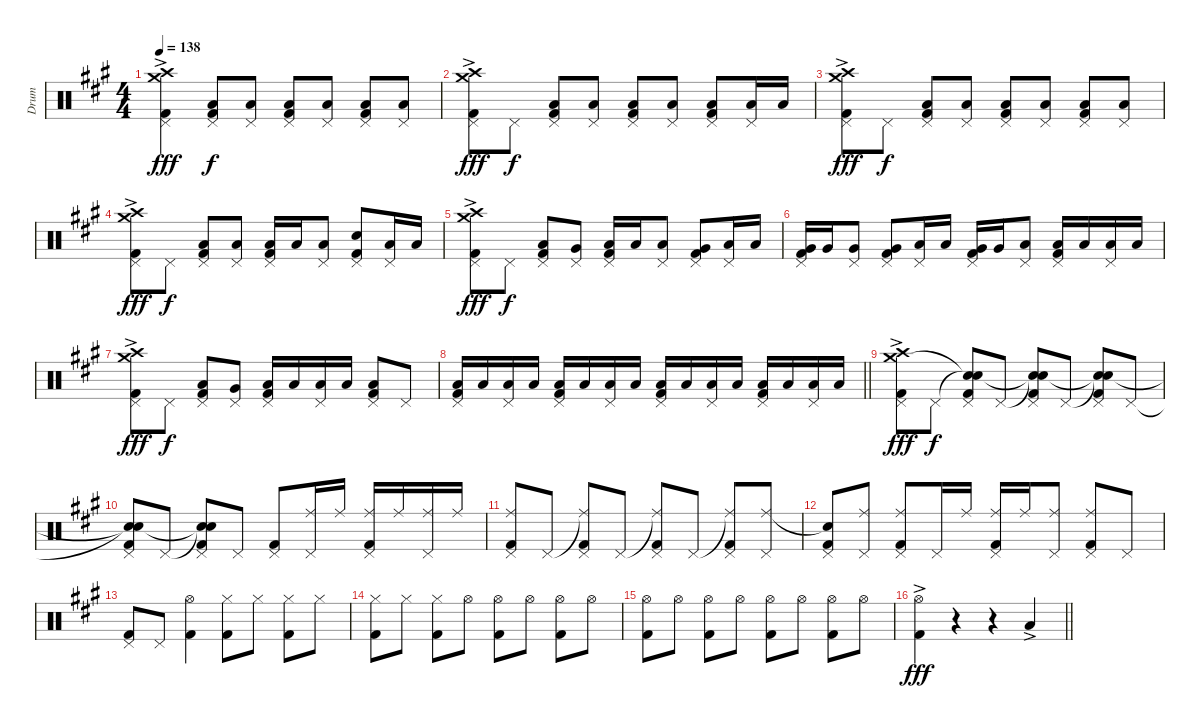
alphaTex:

\track ("Drum" "Drum") {instrument percussion}
\staff {score}
\articulation defaults
\ts (4 4)
\tempo 138
\clef neutral
\ks a
("Crash high (hit)"{ac} "Crash medium (hit)"{ac} "Pedal Hi-Hat (hit)" "Kick (hit) 2").4{dy fff} ("Pedal Hi-Hat (hit)" "Low Floor Tom (hit)" "Kick (hit) 2").8{dy f} ("Pedal Hi-Hat (hit)" "Low Floor Tom (hit)").8 ("Pedal Hi-Hat (hit)" "Low Floor Tom (hit)" "Kick (hit) 2").8 ("Pedal Hi-Hat (hit)" "Low Floor Tom (hit)").8 ("Pedal Hi-Hat (hit)" "Low Floor Tom (hit)" "Kick (hit) 2").8 ("Pedal Hi-Hat (hit)" "Low Floor Tom (hit)").8 |
("Crash high (hit)"{ac} "Crash medium (hit)"{ac} "Pedal Hi-Hat (hit)" "Kick (hit) 2").8{dy fff} "Pedal Hi-Hat (hit)".8{dy f} ("Pedal Hi-Hat (hit)" "Low Floor Tom (hit)" "Kick (hit) 2").8 ("Pedal Hi-Hat (hit)" "Low Floor Tom (hit)").8 ("Pedal Hi-Hat (hit)" "Low Floor Tom (hit)" "Kick (hit) 2").8 ("Pedal Hi-Hat (hit)" "Low Floor Tom (hit)").8 ("Pedal Hi-Hat (hit)" "Low Floor Tom (hit)" "Kick (hit) 2").8 ("Pedal Hi-Hat (hit)" "Low Floor Tom (hit)").16 "Low Floor Tom (hit)".16 |
("Crash high (hit)"{ac} "Crash medium (hit)"{ac} "Pedal Hi-Hat (hit)" "Kick (hit) 2").8{dy fff} "Pedal Hi-Hat (hit)".8{dy f} ("Pedal Hi-Hat (hit)" "Low Floor Tom (hit)" "Kick (hit) 2").8 ("Pedal Hi-Hat (hit)" "Low Floor Tom (hit)").8 ("Pedal Hi-Hat (hit)" "Low Floor Tom (hit)" "Kick (hit) 2").8 ("Pedal Hi-Hat (hit)" "Low Floor Tom (hit)").8 ("Pedal Hi-Hat (hit)" "Low Floor Tom (hit)" "Kick (hit) 2").8 ("Pedal Hi-Hat (hit)" "Low Floor Tom (hit)").8 |
("Crash high (hit)"{ac} "Crash medium (hit)"{ac} "Pedal Hi-Hat (hit)" "Kick (hit) 2").8{dy fff} "Pedal Hi-Hat (hit)".8{dy f} ("Pedal Hi-Hat (hit)" "Low Floor Tom (hit)" "Kick (hit) 2").8 ("Pedal Hi-Hat (hit)" "Low Floor Tom (hit)").8 ("Pedal Hi-Hat (hit)" "Low Floor Tom (hit)" "Kick (hit) 2").16 "Low Floor Tom (hit)".16 ("Pedal Hi-Hat (hit)" "Low Floor Tom (hit)").8 ("Pedal Hi-Hat (hit)" "Snare (hit) 2" "Kick (hit) 2").8 ("Pedal Hi-Hat (hit)" "Low Floor Tom (hit)").16 "Low Floor Tom (hit)".16 |
("Crash high (hit)"{ac} "Crash medium (hit)"{ac} "Pedal Hi-Hat (hit)" "Kick (hit) 2").8{dy fff} "Pedal Hi-Hat (hit)".8{dy f} ("Pedal Hi-Hat (hit)" "Low Floor Tom (hit)" "Kick (hit) 2").8 ("Pedal Hi-Hat (hit)" "Very Low Tom (hit)").8 ("Pedal Hi-Hat (hit)" "Low Floor Tom (hit)" "Kick (hit) 2").16 "Low Floor Tom (hit)".16 ("Pedal Hi-Hat (hit)" "Low Floor Tom (hit)").8 ("Pedal Hi-Hat (hit)" "Very Low Tom (hit)" "Kick (hit) 2").8 ("Pedal Hi-Hat (hit)" "Low Floor Tom (hit)").16 "Low Floor Tom (hit)".16 |
("Pedal Hi-Hat (hit)" "Very Low Tom (hit)" "Kick (hit) 2").16 "Very Low Tom (hit)".16 ("Pedal Hi-Hat (hit)" "Very Low Tom (hit)").8 ("Pedal Hi-Hat (hit)" "Very Low Tom (hit)" "Kick (hit) 2").8 ("Pedal Hi-Hat (hit)" "Low Floor Tom (hit)").16 "Low Floor Tom (hit)".16 ("Pedal Hi-Hat (hit)" "Very Low Tom (hit)" "Kick (hit) 2").16 "Very Low Tom (hit)".16 ("Pedal Hi-Hat (hit)" "Low Floor Tom (hit)").8 ("Pedal Hi-Hat (hit)" "Low Floor Tom (hit)" "Kick (hit) 2").16 "Low Floor Tom (hit)".16 ("Pedal Hi-Hat (hit)" "Low Floor Tom (hit)").16 "Low Floor Tom (hit)".16 |
("Crash high (hit)"{ac} "Crash medium (hit)"{ac} "Pedal Hi-Hat (hit)" "Kick (hit) 2").8{dy fff} "Pedal Hi-Hat (hit)".8{dy f} ("Pedal Hi-Hat (hit)" "Low Floor Tom (hit)" "Kick (hit) 2").8 ("Pedal Hi-Hat (hit)" "Very Low Tom (hit)").8 ("Pedal Hi-Hat (hit)" "Low Floor Tom (hit)" "Kick (hit) 2").16 "Low Floor Tom (hit)".16 ("Pedal Hi-Hat (hit)" "Low Floor Tom (hit)").16 "Low Floor Tom (hit)".16 ("Pedal Hi-Hat (hit)" "Low Floor Tom (hit)" "Kick (hit) 2").8 "Pedal Hi-Hat (hit)".8 |
\barLineRight lightlight
("Pedal Hi-Hat (hit)" "Low Floor Tom (hit)" "Kick (hit) 2").16 "Low Floor Tom (hit)".16 ("Pedal Hi-Hat (hit)" "Low Floor Tom (hit)").16 "Low Floor Tom (hit)".16 ("Pedal Hi-Hat (hit)" "Low Floor Tom (hit)" "Kick (hit) 2").16 "Low Floor Tom (hit)".16 ("Pedal Hi-Hat (hit)" "Low Floor Tom (hit)").16 "Low Floor Tom (hit)".16 ("Pedal Hi-Hat (hit)" "Low Floor Tom (hit)" "Kick (hit) 2").16 "Low Floor Tom (hit)".16 ("Pedal Hi-Hat (hit)" "Low Floor Tom (hit)").16 "Low Floor Tom (hit)".16 ("Pedal Hi-Hat (hit)" "Low Floor Tom (hit)" "Kick (hit) 2").16 "Low Floor Tom (hit)".16 ("Pedal Hi-Hat (hit)" "Low Floor Tom (hit)").16 "Low Floor Tom (hit)".16 |
("Crash high (hit)"{ac} "Crash medium (hit)"{ac} "Pedal Hi-Hat (hit)" "Kick (hit) 2").8{dy fff} "Pedal Hi-Hat (hit)".8{dy f} ("Snare (hit)"{t} "Snare (hit)"{t} "Pedal Hi-Hat (hit)" "Kick (hit) 2").8 "Pedal Hi-Hat (hit)".8 ("Snare (hit)"{t} "Snare (hit)"{t} "Pedal Hi-Hat (hit)" "Kick (hit) 2").8 "Pedal Hi-Hat (hit)".8 ("Snare (hit)"{t} "Snare (hit)"{t} "Pedal Hi-Hat (hit)" "Kick (hit) 2").8 "Pedal Hi-Hat (hit)".8 |
("Snare (hit)"{t} "Snare (hit)"{t} "Pedal Hi-Hat (hit)" "Kick (hit) 2").8 "Pedal Hi-Hat (hit)".8 ("Snare (hit)"{t} "Snare (hit)"{t} "Pedal Hi-Hat (hit)" "Kick (hit) 2").8 "Pedal Hi-Hat (hit)".8 ("Pedal Hi-Hat (hit)" "Kick (hit) 2").8 ("Ride (middle)" "Pedal Hi-Hat (hit)").16 "Ride (middle)".16 ("Ride (middle)" "Pedal Hi-Hat (hit)" "Kick (hit) 2").16 "Ride (middle)".16 ("Ride (middle)" "Pedal Hi-Hat (hit)").16 "Ride (middle)".16 |
("Ride (middle)" "Pedal Hi-Hat (hit)" "Kick (hit) 2").8 "Pedal Hi-Hat (hit)".8 ("Ride (middle)"{t} "Pedal Hi-Hat (hit)" "Kick (hit) 2").8 "Pedal Hi-Hat (hit)".8 ("Ride (middle)"{t} "Pedal Hi-Hat (hit)" "Kick (hit) 2").8 "Pedal Hi-Hat (hit)".8 ("Ride (middle)"{t} "Pedal Hi-Hat (hit)" "Kick (hit) 2").8 ("Ride (middle)" "Pedal Hi-Hat (hit)").8 |
("Snare (hit)"{t} "Pedal Hi-Hat (hit)" "Kick (hit) 2").8 ("Ride (middle)" "Pedal Hi-Hat (hit)").8 ("Ride (middle)" "Pedal Hi-Hat (hit)" "Kick (hit) 2").8 "Pedal Hi-Hat (hit)".16 "Ride (middle)".16 ("Ride (middle)" "Pedal Hi-Hat (hit)" "Kick (hit) 2").16 "Ride (middle)".16 ("Ride (middle)" "Pedal Hi-Hat (hit)").8 ("Ride (middle)" "Pedal Hi-Hat (hit)" "Kick (hit) 2").8 "Pedal Hi-Hat (hit)".8 |
("Pedal Hi-Hat (hit)" "Kick (hit) 2").8 "Pedal Hi-Hat (hit)".8 ("Hi-Hat (open)" "Kick (hit) 2").4 ("Hi-Hat (closed)" "Kick (hit) 2").8 "Hi-Hat (closed)".8 ("Hi-Hat (closed)" "Kick (hit) 2").8 "Hi-Hat (closed)".8 |
("Hi-Hat (closed)" "Kick (hit) 2").8 "Hi-Hat (closed)".8 ("Hi-Hat (closed)" "Kick (hit) 2").8 "Hi-Hat (open)".8{volume 15} ("Hi-Hat (open)" "Kick (hit) 2").8 "Hi-Hat (open)".8 ("Hi-Hat (open)" "Kick (hit) 2").8 "Hi-Hat (open)".8 |
("Hi-Hat (open)" "Kick (hit) 2").8 "Hi-Hat (open)".8 ("Hi-Hat (open)" "Kick (hit) 2").8 "Hi-Hat (open)".8 ("Hi-Hat (open)" "Kick (hit) 2").8 "Hi-Hat (open)".8 ("Hi-Hat (open)" "Kick (hit) 2").8 "Hi-Hat (open)".8 |
\barLineRight lightlight
("Hi-Hat (open)"{ac} "Kick (hit) 2").4{dy fff volume 16} r.4 r.4 "Low Floor Tom (hit)"{ac}.4{volume 14}
